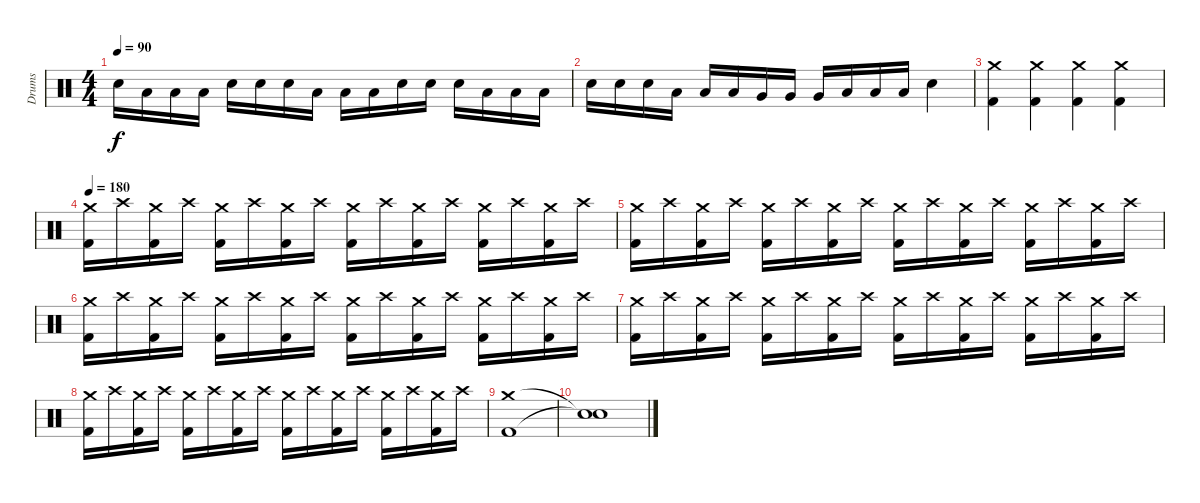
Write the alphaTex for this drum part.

\track ("Drums" "Drums") {instrument percussion}
\staff {score}
\articulation defaults
\ts (4 4)
\tempo 90
\clef neutral
\ks c "Electric Snare (hit)".16{dy f} "Low Tom (hit)".16 "Low Tom (hit)".16 "Low Tom (hit)".16 "Electric Snare (hit)".16 "Electric Snare (hit)".16 "Electric Snare (hit)".16 "Low Tom (hit)".16 "Low Tom (hit)".16 "Low Tom (hit)".16 "Electric Snare (hit)".16 "Electric Snare (hit)".16 "Electric Snare (hit)".16 "Low Tom (hit)".16 "Low Tom (hit)".16 "Low Tom (hit)".16
|
"Electric Snare (hit)".16 "Electric Snare (hit)".16 "Electric Snare (hit)".16 "Low Tom (hit)".16 "Low Tom (hit)".16 "Low Tom (hit)".16 "Very Low Tom (hit)".16 "Very Low Tom (hit)".16 "Very Low Tom (hit)".16 "Low Floor Tom (hit)".16 "Low Floor Tom (hit)".16 "Low Floor Tom (hit)".16 "Electric Snare (hit)".4 |
("Crash medium (hit)" "Kick (hit) 2").4 ("Crash medium (hit)" "Kick (hit) 2").4 ("Crash medium (hit)" "Kick (hit) 2").4 ("Crash medium (hit)" "Kick (hit) 2").4 |
\tempo 180
("Crash medium (hit)" "Kick (hit) 2").16 "Crash high (hit)".16 ("Crash medium (hit)" "Kick (hit) 2").16 "Crash high (hit)".16 ("Crash medium (hit)" "Kick (hit) 2").16 "Crash high (hit)".16 ("Crash medium (hit)" "Kick (hit) 2").16 "Crash high (hit)".16 ("Crash medium (hit)" "Kick (hit) 2").16 "Crash high (hit)".16 ("Crash medium (hit)" "Kick (hit) 2").16 "Crash high (hit)".16 ("Crash medium (hit)" "Kick (hit) 2").16 "Crash high (hit)".16 ("Crash medium (hit)" "Kick (hit) 2").16 "Crash high (hit)".16 |
("Crash medium (hit)" "Kick (hit) 2").16 "Crash high (hit)".16 ("Crash medium (hit)" "Kick (hit) 2").16 "Crash high (hit)".16 ("Crash medium (hit)" "Kick (hit) 2").16 "Crash high (hit)".16 ("Crash medium (hit)" "Kick (hit) 2").16 "Crash high (hit)".16 ("Crash medium (hit)" "Kick (hit) 2").16 "Crash high (hit)".16 ("Crash medium (hit)" "Kick (hit) 2").16 "Crash high (hit)".16 ("Crash medium (hit)" "Kick (hit) 2").16 "Crash high (hit)".16 ("Crash medium (hit)" "Kick (hit) 2").16 "Crash high (hit)".16 |
("Crash medium (hit)" "Kick (hit) 2").16 "Crash high (hit)".16 ("Crash medium (hit)" "Kick (hit) 2").16 "Crash high (hit)".16 ("Crash medium (hit)" "Kick (hit) 2").16 "Crash high (hit)".16 ("Crash medium (hit)" "Kick (hit) 2").16 "Crash high (hit)".16 ("Crash medium (hit)" "Kick (hit) 2").16 "Crash high (hit)".16 ("Crash medium (hit)" "Kick (hit) 2").16 "Crash high (hit)".16 ("Crash medium (hit)" "Kick (hit) 2").16 "Crash high (hit)".16 ("Crash medium (hit)" "Kick (hit) 2").16 "Crash high (hit)".16 |
("Crash medium (hit)" "Kick (hit) 2").16 "Crash high (hit)".16 ("Crash medium (hit)" "Kick (hit) 2").16 "Crash high (hit)".16 ("Crash medium (hit)" "Kick (hit) 2").16 "Crash high (hit)".16 ("Crash medium (hit)" "Kick (hit) 2").16 "Crash high (hit)".16 ("Crash medium (hit)" "Kick (hit) 2").16 "Crash high (hit)".16 ("Crash medium (hit)" "Kick (hit) 2").16 "Crash high (hit)".16 ("Crash medium (hit)" "Kick (hit) 2").16 "Crash high (hit)".16 ("Crash medium (hit)" "Kick (hit) 2").16 "Crash high (hit)".16 |
("Crash medium (hit)" "Kick (hit) 2").16 "Crash high (hit)".16 ("Crash medium (hit)" "Kick (hit) 2").16 "Crash high (hit)".16 ("Crash medium (hit)" "Kick (hit) 2").16 "Crash high (hit)".16 ("Crash medium (hit)" "Kick (hit) 2").16 "Crash high (hit)".16 ("Crash medium (hit)" "Kick (hit) 2").16 "Crash high (hit)".16 ("Crash medium (hit)" "Kick (hit) 2").16 "Crash high (hit)".16 ("Crash medium (hit)" "Kick (hit) 2").16 "Crash high (hit)".16 ("Crash medium (hit)" "Kick (hit) 2").16 "Crash high (hit)".16 |
("Crash medium (hit)" "Kick (hit) 2").1 |
("Snare (hit)"{t} "Snare (hit)"{t}).1
